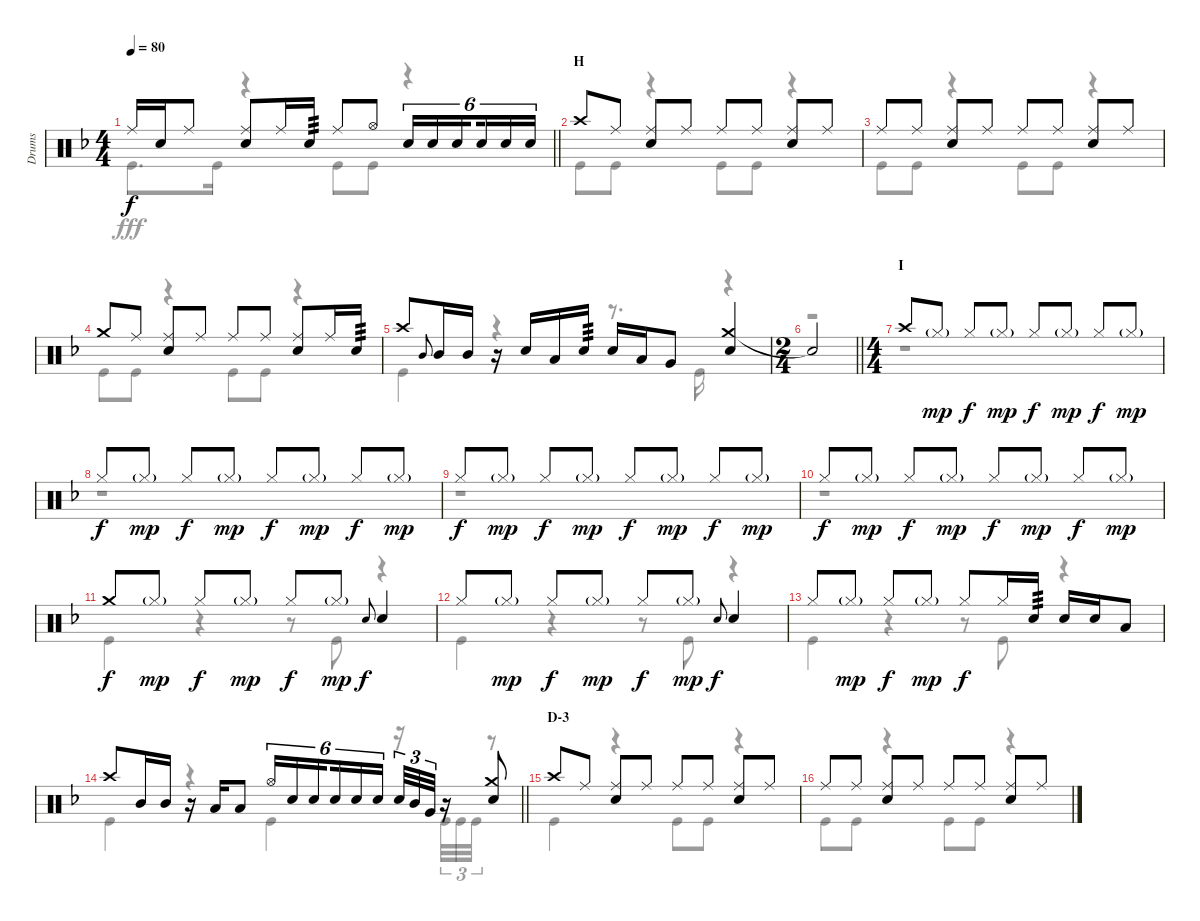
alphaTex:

\track ("Drums" "Drums") {instrument percussion}
\staff {score}
\articulation defaults
\voice
\ts (4 4)
\tempo 80
\clef neutral
\barLineRight lightlight
\ks f "Ride (middle)".16{dy f} "Snare (hit) 2".16 "Ride (middle)".8
("Ride (middle)" "Snare (hit) 2").8 "Ride (middle)".16 "Snare (hit) 2".16{tp 3} "Ride (middle)".8 "Hi-Hat (open)".8 "Snare (hit) 2".16{tu (6 4)} "Snare (hit) 2".16{tu (6 4)} "Snare (hit) 2".16{tu (6 4) beam splitsecondary} "Snare (hit) 2".16{tu (6 4)} "Snare (hit) 2".16{tu (6 4)} "Snare (hit) 2".16{tu (6 4)} |
\section ("" "H")
"Crash high (hit)".8 "Ride (middle)".8 ("Ride (middle)" "Snare (hit) 2").8 "Ride (middle)".8 "Ride (middle)".8 "Ride (middle)".8 ("Ride (middle)" "Snare (hit) 2").8 "Ride (middle)".8 |
"Ride (middle)".8 "Ride (middle)".8 ("Ride (middle)" "Snare (hit) 2").8 "Ride (middle)".8 "Ride (middle)".8 "Ride (middle)".8 ("Ride (middle)" "Snare (hit) 2").8 "Ride (middle)".8 |
"Crash medium (hit)".8 "Ride (middle)".8 ("Ride (middle)" "Snare (hit) 2").8 "Ride (middle)".8 "Ride (middle)".8 "Ride (middle)".8 ("Ride (middle)" "Snare (hit) 2").8 "Ride (middle)".16 "Snare (hit) 2".16{tp 3} |
"Crash high (hit)".8 "Mid Tom (hit)".8{gr onbeat} "Mid Tom (hit)".16 "Mid Tom (hit)".16 r.16 "Snare (hit) 2".16 "Low Tom (hit)".16 "Snare (hit) 2".16{tp 3} "Snare (hit) 2".16 "Low Tom (hit)".16 "Very Low Tom (hit)".8 ("Crash medium (hit)" "Snare (hit) 2").4 |
\ts (2 4)
\barLineRight lightlight "Snare (hit)"{t}.2
|
\ts (4 4)
\section ("" "I")
"Crash high (hit)".8 "Hi-Hat (closed)"{g}.8{dy mp} "Hi-Hat (closed)".8{dy f} "Hi-Hat (closed)"{g}.8{dy mp} "Hi-Hat (closed)".8{dy f} "Hi-Hat (closed)"{g}.8{dy mp} "Hi-Hat (closed)".8{dy f} "Hi-Hat (closed)"{g}.8{dy mp} |
"Hi-Hat (closed)".8{dy f} "Hi-Hat (closed)"{g}.8{dy mp} "Hi-Hat (closed)".8{dy f} "Hi-Hat (closed)"{g}.8{dy mp} "Hi-Hat (closed)".8{dy f} "Hi-Hat (closed)"{g}.8{dy mp} "Hi-Hat (closed)".8{dy f} "Hi-Hat (closed)"{g}.8{dy mp} |
"Hi-Hat (closed)".8{dy f} "Hi-Hat (closed)"{g}.8{dy mp} "Hi-Hat (closed)".8{dy f} "Hi-Hat (closed)"{g}.8{dy mp} "Hi-Hat (closed)".8{dy f} "Hi-Hat (closed)"{g}.8{dy mp} "Hi-Hat (closed)".8{dy f} "Hi-Hat (closed)"{g}.8{dy mp} |
"Hi-Hat (closed)".8{dy f} "Hi-Hat (closed)"{g}.8{dy mp} "Hi-Hat (closed)".8{dy f} "Hi-Hat (closed)"{g}.8{dy mp} "Hi-Hat (closed)".8{dy f} "Hi-Hat (closed)"{g}.8{dy mp} "Hi-Hat (closed)".8{dy f} "Hi-Hat (closed)"{g}.8{dy mp} |
"Crash medium (hit)".8{dy f} "Hi-Hat (closed)"{g}.8{dy mp} "Hi-Hat (closed)".8{dy f} "Hi-Hat (closed)"{g}.8{dy mp} "Hi-Hat (closed)".8{dy f} "Hi-Hat (closed)"{g}.8{dy mp} "Snare (hit) 2".8{gr onbeat dy f} "Snare (hit) 2".4 |
"Hi-Hat (closed)".8 "Hi-Hat (closed)"{g}.8{dy mp} "Hi-Hat (closed)".8{dy f} "Hi-Hat (closed)"{g}.8{dy mp} "Hi-Hat (closed)".8{dy f} "Hi-Hat (closed)"{g}.8{dy mp} "Snare (hit) 2".8{gr onbeat dy f} "Snare (hit) 2".4 |
"Hi-Hat (closed)".8 "Hi-Hat (closed)"{g}.8{dy mp} "Hi-Hat (closed)".8{dy f} "Hi-Hat (closed)"{g}.8{dy mp} "Hi-Hat (closed)".8{dy f} "Hi-Hat (closed)".16 "Snare (hit) 2".16{tp 3} "Snare (hit) 2".16 "Snare (hit) 2".16 "Low Tom (hit)".8 |
\barLineRight lightlight "Crash high (hit)".8 "Mid Tom (hit)".16 "Mid Tom (hit)".16
r.16 "Low Tom (hit)".16 "Low Tom (hit)".8 "Hi-Hat (open)".16{tu (6 4)} "Snare (hit) 2".16{tu (6 4)} "Snare (hit) 2".16{tu (6 4) beam splitsecondary} "Snare (hit) 2".16{tu (6 4)} "Snare (hit) 2".16{tu (6 4)} "Snare (hit) 2".16{tu (6 4)} "Snare (hit) 2".32{tu (3 2)} "Mid Tom (hit)".32{tu (3 2)} "Very Low Tom (hit)".32{tu (3 2)} r.16 ("Crash medium (hit)" "Snare (hit) 2").8 |
\section ("" "D-3")
"Crash high (hit)".8 "Ride (middle)".8 ("Ride (middle)" "Snare (hit) 2").8 "Ride (middle)".8 "Ride (middle)".8 "Ride (middle)".8 ("Ride (middle)" "Snare (hit) 2").8 "Ride (middle)".8 |
"Ride (middle)".8 "Ride (middle)".8 ("Ride (middle)" "Snare (hit) 2").8 "Ride (middle)".8 "Ride (middle)".8 "Ride (middle)".8 ("Ride (middle)" "Snare (hit) 2").8 "Ride (middle)".8
\voice
\clef neutral
\ottava regular
\simile none
\barLineRight lightlight
\ks f "Kick (hit)".8{d dy fff} "Kick (hit)".16
r.4 "Kick (hit)".8 "Kick (hit)".8 r.4 |
"Kick (hit)".8 "Kick (hit)".8 r.4 "Kick (hit)".8 "Kick (hit)".8 r.4 |
"Kick (hit)".8 "Kick (hit)".8 r.4 "Kick (hit)".8 "Kick (hit)".8 r.4 |
"Kick (hit)".8 "Kick (hit)".8 r.4 "Kick (hit)".8 "Kick (hit)".8 r.4 |
"Kick (hit)".4 r.4 r.8{d} "Kick (hit)".16 r.4 |
\barLineRight lightlight
r.2 |
r.1 |
r.1 |
r.1 |
r.1 |
"Kick (hit)".4 r.4 r.8 "Kick (hit)".8 r.4 |
"Kick (hit)".4 r.4 r.8 "Kick (hit)".8 r.4 |
"Kick (hit)".4 r.4 r.8 "Kick (hit)".8 r.4 |
\barLineRight lightlight "Kick (hit)".4
r.4 "Kick (hit)".4 r.16 "Kick (hit)".32{tu (3 2)} "Kick (hit)".32{tu (3 2)} "Kick (hit)".32{tu (3 2)} r.8 |
"Kick (hit)".4 r.4 "Kick (hit)".8 "Kick (hit)".8 r.4 |
"Kick (hit)".8 "Kick (hit)".8 r.4 "Kick (hit)".8 "Kick (hit)".8 r.4
